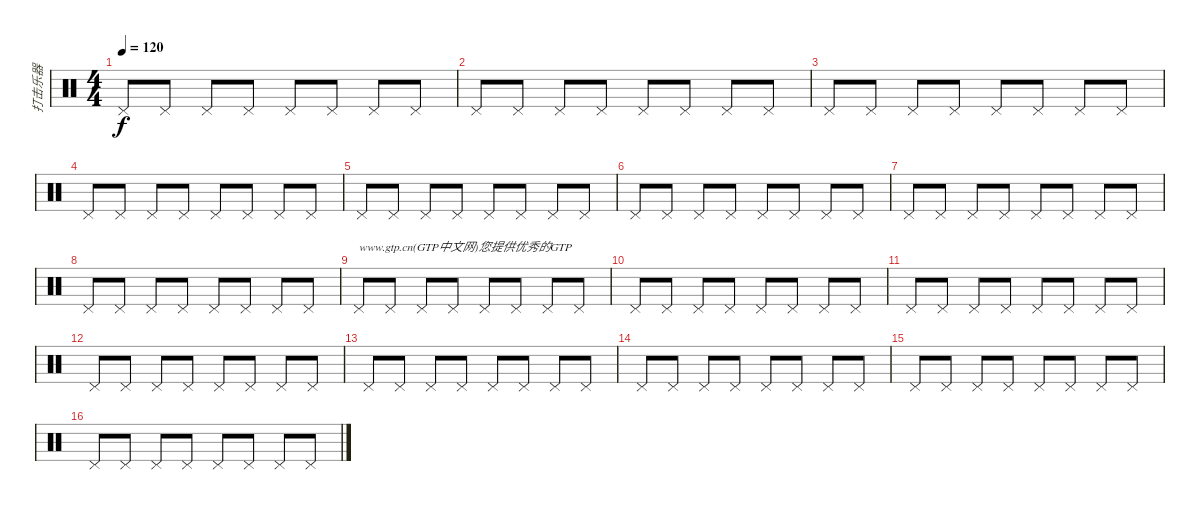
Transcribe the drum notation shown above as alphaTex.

\track ("打击乐器" "打击乐器") {instrument percussion}
\staff {score}
\articulation defaults
\ts (4 4)
\tempo 120
\clef neutral
\ks c "Pedal Hi-Hat (hit)".8{dy f} "Pedal Hi-Hat (hit)".8 "Pedal Hi-Hat (hit)".8 "Pedal Hi-Hat (hit)".8 "Pedal Hi-Hat (hit)".8 "Pedal Hi-Hat (hit)".8 "Pedal Hi-Hat (hit)".8 "Pedal Hi-Hat (hit)".8
|
"Pedal Hi-Hat (hit)".8 "Pedal Hi-Hat (hit)".8 "Pedal Hi-Hat (hit)".8 "Pedal Hi-Hat (hit)".8 "Pedal Hi-Hat (hit)".8 "Pedal Hi-Hat (hit)".8 "Pedal Hi-Hat (hit)".8 "Pedal Hi-Hat (hit)".8 |
"Pedal Hi-Hat (hit)".8 "Pedal Hi-Hat (hit)".8 "Pedal Hi-Hat (hit)".8 "Pedal Hi-Hat (hit)".8 "Pedal Hi-Hat (hit)".8 "Pedal Hi-Hat (hit)".8 "Pedal Hi-Hat (hit)".8 "Pedal Hi-Hat (hit)".8 |
"Pedal Hi-Hat (hit)".8 "Pedal Hi-Hat (hit)".8 "Pedal Hi-Hat (hit)".8 "Pedal Hi-Hat (hit)".8 "Pedal Hi-Hat (hit)".8 "Pedal Hi-Hat (hit)".8 "Pedal Hi-Hat (hit)".8 "Pedal Hi-Hat (hit)".8 |
"Pedal Hi-Hat (hit)".8 "Pedal Hi-Hat (hit)".8 "Pedal Hi-Hat (hit)".8 "Pedal Hi-Hat (hit)".8 "Pedal Hi-Hat (hit)".8 "Pedal Hi-Hat (hit)".8 "Pedal Hi-Hat (hit)".8 "Pedal Hi-Hat (hit)".8 |
"Pedal Hi-Hat (hit)".8{txt " "} "Pedal Hi-Hat (hit)".8 "Pedal Hi-Hat (hit)".8 "Pedal Hi-Hat (hit)".8 "Pedal Hi-Hat (hit)".8 "Pedal Hi-Hat (hit)".8 "Pedal Hi-Hat (hit)".8 "Pedal Hi-Hat (hit)".8 |
"Pedal Hi-Hat (hit)".8 "Pedal Hi-Hat (hit)".8 "Pedal Hi-Hat (hit)".8 "Pedal Hi-Hat (hit)".8 "Pedal Hi-Hat (hit)".8 "Pedal Hi-Hat (hit)".8 "Pedal Hi-Hat (hit)".8 "Pedal Hi-Hat (hit)".8 |
"Pedal Hi-Hat (hit)".8 "Pedal Hi-Hat (hit)".8 "Pedal Hi-Hat (hit)".8 "Pedal Hi-Hat (hit)".8 "Pedal Hi-Hat (hit)".8 "Pedal Hi-Hat (hit)".8 "Pedal Hi-Hat (hit)".8 "Pedal Hi-Hat (hit)".8 |
"Pedal Hi-Hat (hit)".8{txt "www.gtp.cn(GTP中文网)您提供优秀的GTP"} "Pedal Hi-Hat (hit)".8 "Pedal Hi-Hat (hit)".8 "Pedal Hi-Hat (hit)".8 "Pedal Hi-Hat (hit)".8 "Pedal Hi-Hat (hit)".8 "Pedal Hi-Hat (hit)".8 "Pedal Hi-Hat (hit)".8 |
"Pedal Hi-Hat (hit)".8 "Pedal Hi-Hat (hit)".8 "Pedal Hi-Hat (hit)".8 "Pedal Hi-Hat (hit)".8 "Pedal Hi-Hat (hit)".8 "Pedal Hi-Hat (hit)".8 "Pedal Hi-Hat (hit)".8 "Pedal Hi-Hat (hit)".8 |
"Pedal Hi-Hat (hit)".8 "Pedal Hi-Hat (hit)".8 "Pedal Hi-Hat (hit)".8 "Pedal Hi-Hat (hit)".8 "Pedal Hi-Hat (hit)".8 "Pedal Hi-Hat (hit)".8 "Pedal Hi-Hat (hit)".8 "Pedal Hi-Hat (hit)".8 |
"Pedal Hi-Hat (hit)".8 "Pedal Hi-Hat (hit)".8 "Pedal Hi-Hat (hit)".8 "Pedal Hi-Hat (hit)".8 "Pedal Hi-Hat (hit)".8 "Pedal Hi-Hat (hit)".8 "Pedal Hi-Hat (hit)".8 "Pedal Hi-Hat (hit)".8 |
"Pedal Hi-Hat (hit)".8 "Pedal Hi-Hat (hit)".8 "Pedal Hi-Hat (hit)".8 "Pedal Hi-Hat (hit)".8 "Pedal Hi-Hat (hit)".8 "Pedal Hi-Hat (hit)".8 "Pedal Hi-Hat (hit)".8 "Pedal Hi-Hat (hit)".8 |
"Pedal Hi-Hat (hit)".8 "Pedal Hi-Hat (hit)".8 "Pedal Hi-Hat (hit)".8 "Pedal Hi-Hat (hit)".8 "Pedal Hi-Hat (hit)".8 "Pedal Hi-Hat (hit)".8 "Pedal Hi-Hat (hit)".8 "Pedal Hi-Hat (hit)".8 |
"Pedal Hi-Hat (hit)".8 "Pedal Hi-Hat (hit)".8 "Pedal Hi-Hat (hit)".8 "Pedal Hi-Hat (hit)".8 "Pedal Hi-Hat (hit)".8 "Pedal Hi-Hat (hit)".8 "Pedal Hi-Hat (hit)".8 "Pedal Hi-Hat (hit)".8 |
"Pedal Hi-Hat (hit)".8 "Pedal Hi-Hat (hit)".8 "Pedal Hi-Hat (hit)".8 "Pedal Hi-Hat (hit)".8 "Pedal Hi-Hat (hit)".8 "Pedal Hi-Hat (hit)".8 "Pedal Hi-Hat (hit)".8 "Pedal Hi-Hat (hit)".8
